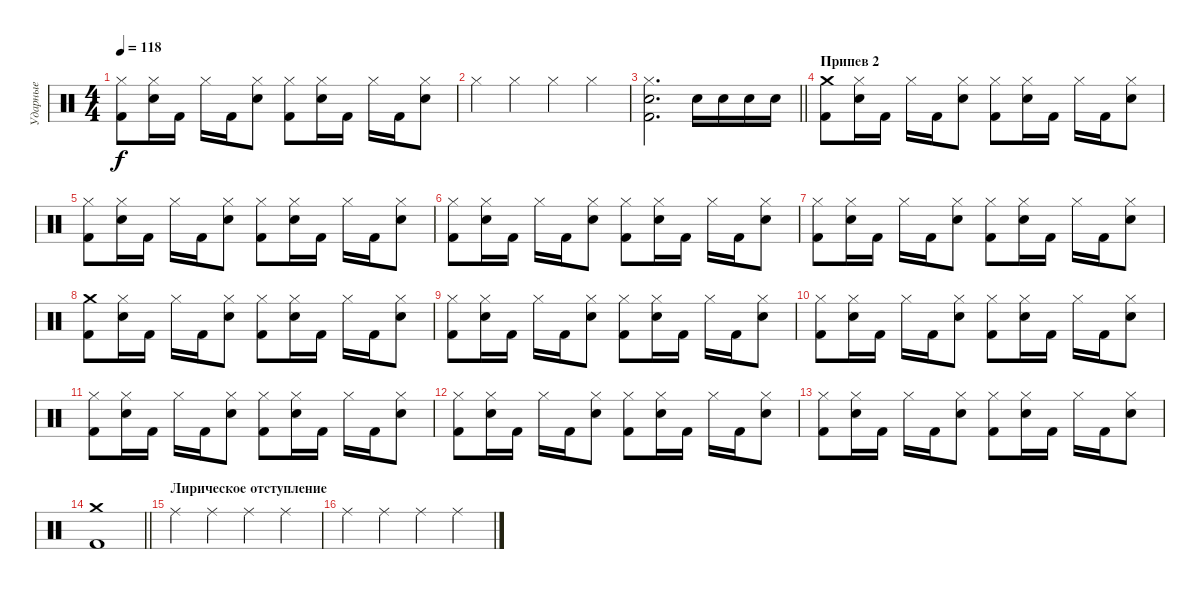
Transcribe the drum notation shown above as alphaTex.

\track ("Ударные" "Ударные") {instrument percussion}
\staff {score}
\articulation defaults
\ts (4 4)
\tempo 118
\clef neutral
\ks c
("Hi-Hat (closed)" "Kick (hit) 2").8{dy f} ("Hi-Hat (closed)" "Snare (hit) 2").16 "Kick (hit) 2".16 "Hi-Hat (closed)".16 "Kick (hit) 2".16 ("Hi-Hat (closed)" "Snare (hit) 2").8 ("Hi-Hat (closed)" "Kick (hit) 2").8 ("Hi-Hat (closed)" "Snare (hit) 2").16 "Kick (hit) 2".16 "Hi-Hat (closed)".16 "Kick (hit) 2".16 ("Hi-Hat (closed)" "Snare (hit) 2").8 |
"Hi-Hat (closed)".4 "Hi-Hat (closed)".4 "Hi-Hat (closed)".4 "Hi-Hat (closed)".4 |
\barLineRight lightlight
("Hi-Hat (closed)" "Kick (hit) 2" "Snare (hit) 2").2{d} "Electric Snare (hit)".16 "Electric Snare (hit)".16 "Electric Snare (hit)".16 "Electric Snare (hit)".16 |
\section ("" "Припев 2")
("Crash medium (hit)" "Kick (hit) 2").8 ("Hi-Hat (closed)" "Snare (hit) 2").16 "Kick (hit) 2".16 "Hi-Hat (closed)".16 "Kick (hit) 2".16 ("Hi-Hat (closed)" "Snare (hit) 2").8 ("Hi-Hat (closed)" "Kick (hit) 2").8 ("Hi-Hat (closed)" "Snare (hit) 2").16 "Kick (hit) 2".16 "Hi-Hat (closed)".16 "Kick (hit) 2".16 ("Hi-Hat (closed)" "Snare (hit) 2").8 |
("Hi-Hat (closed)" "Kick (hit) 2").8 ("Hi-Hat (closed)" "Snare (hit) 2").16 "Kick (hit) 2".16 "Hi-Hat (closed)".16 "Kick (hit) 2".16 ("Hi-Hat (closed)" "Snare (hit) 2").8 ("Hi-Hat (closed)" "Kick (hit) 2").8 ("Hi-Hat (closed)" "Snare (hit) 2").16 "Kick (hit) 2".16 "Hi-Hat (closed)".16 "Kick (hit) 2".16 ("Hi-Hat (closed)" "Snare (hit) 2").8 |
("Hi-Hat (closed)" "Kick (hit) 2").8 ("Hi-Hat (closed)" "Snare (hit) 2").16 "Kick (hit) 2".16 "Hi-Hat (closed)".16 "Kick (hit) 2".16 ("Hi-Hat (closed)" "Snare (hit) 2").8 ("Hi-Hat (closed)" "Kick (hit) 2").8 ("Hi-Hat (closed)" "Snare (hit) 2").16 "Kick (hit) 2".16 "Hi-Hat (closed)".16 "Kick (hit) 2".16 ("Hi-Hat (closed)" "Snare (hit) 2").8 |
("Hi-Hat (closed)" "Kick (hit) 2").8 ("Hi-Hat (closed)" "Snare (hit) 2").16 "Kick (hit) 2".16 "Hi-Hat (closed)".16 "Kick (hit) 2".16 ("Hi-Hat (closed)" "Snare (hit) 2").8 ("Hi-Hat (closed)" "Kick (hit) 2").8 ("Hi-Hat (closed)" "Snare (hit) 2").16 "Kick (hit) 2".16 "Hi-Hat (closed)".16 "Kick (hit) 2".16 ("Hi-Hat (closed)" "Snare (hit) 2").8 |
("Crash medium (hit)" "Kick (hit) 2").8 ("Hi-Hat (closed)" "Snare (hit) 2").16 "Kick (hit) 2".16 "Hi-Hat (closed)".16 "Kick (hit) 2".16 ("Hi-Hat (closed)" "Snare (hit) 2").8 ("Hi-Hat (closed)" "Kick (hit) 2").8 ("Hi-Hat (closed)" "Snare (hit) 2").16 "Kick (hit) 2".16 "Hi-Hat (closed)".16 "Kick (hit) 2".16 ("Hi-Hat (closed)" "Snare (hit) 2").8 |
("Hi-Hat (closed)" "Kick (hit) 2").8 ("Hi-Hat (closed)" "Snare (hit) 2").16 "Kick (hit) 2".16 "Hi-Hat (closed)".16 "Kick (hit) 2".16 ("Hi-Hat (closed)" "Snare (hit) 2").8 ("Hi-Hat (closed)" "Kick (hit) 2").8 ("Hi-Hat (closed)" "Snare (hit) 2").16 "Kick (hit) 2".16 "Hi-Hat (closed)".16 "Kick (hit) 2".16 ("Hi-Hat (closed)" "Snare (hit) 2").8 |
("Hi-Hat (closed)" "Kick (hit) 2").8 ("Hi-Hat (closed)" "Snare (hit) 2").16 "Kick (hit) 2".16 "Hi-Hat (closed)".16 "Kick (hit) 2".16 ("Hi-Hat (closed)" "Snare (hit) 2").8 ("Hi-Hat (closed)" "Kick (hit) 2").8 ("Hi-Hat (closed)" "Snare (hit) 2").16 "Kick (hit) 2".16 "Hi-Hat (closed)".16 "Kick (hit) 2".16 ("Hi-Hat (closed)" "Snare (hit) 2").8 |
("Hi-Hat (closed)" "Kick (hit) 2").8 ("Hi-Hat (closed)" "Snare (hit) 2").16 "Kick (hit) 2".16 "Hi-Hat (closed)".16 "Kick (hit) 2".16 ("Hi-Hat (closed)" "Snare (hit) 2").8 ("Hi-Hat (closed)" "Kick (hit) 2").8 ("Hi-Hat (closed)" "Snare (hit) 2").16 "Kick (hit) 2".16 "Hi-Hat (closed)".16 "Kick (hit) 2".16 ("Hi-Hat (closed)" "Snare (hit) 2").8 |
("Hi-Hat (closed)" "Kick (hit) 2").8 ("Hi-Hat (closed)" "Snare (hit) 2").16 "Kick (hit) 2".16 "Hi-Hat (closed)".16 "Kick (hit) 2".16 ("Hi-Hat (closed)" "Snare (hit) 2").8 ("Hi-Hat (closed)" "Kick (hit) 2").8 ("Hi-Hat (closed)" "Snare (hit) 2").16 "Kick (hit) 2".16 "Hi-Hat (closed)".16 "Kick (hit) 2".16 ("Hi-Hat (closed)" "Snare (hit) 2").8 |
("Hi-Hat (closed)" "Kick (hit) 2").8 ("Hi-Hat (closed)" "Snare (hit) 2").16 "Kick (hit) 2".16 "Hi-Hat (closed)".16 "Kick (hit) 2".16 ("Hi-Hat (closed)" "Snare (hit) 2").8 ("Hi-Hat (closed)" "Kick (hit) 2").8 ("Hi-Hat (closed)" "Snare (hit) 2").16 "Kick (hit) 2".16 "Hi-Hat (closed)".16 "Kick (hit) 2".16 ("Hi-Hat (closed)" "Snare (hit) 2").8 |
\barLineRight lightlight
("Crash medium (hit)" "Kick (hit) 2").1 |
\section ("" "Лирическое отступление")
"Ride (middle)".4 "Ride (middle)".4 "Ride (middle)".4 "Ride (middle)".4 |
"Ride (middle)".4 "Ride (middle)".4 "Ride (middle)".4 "Ride (middle)".4
